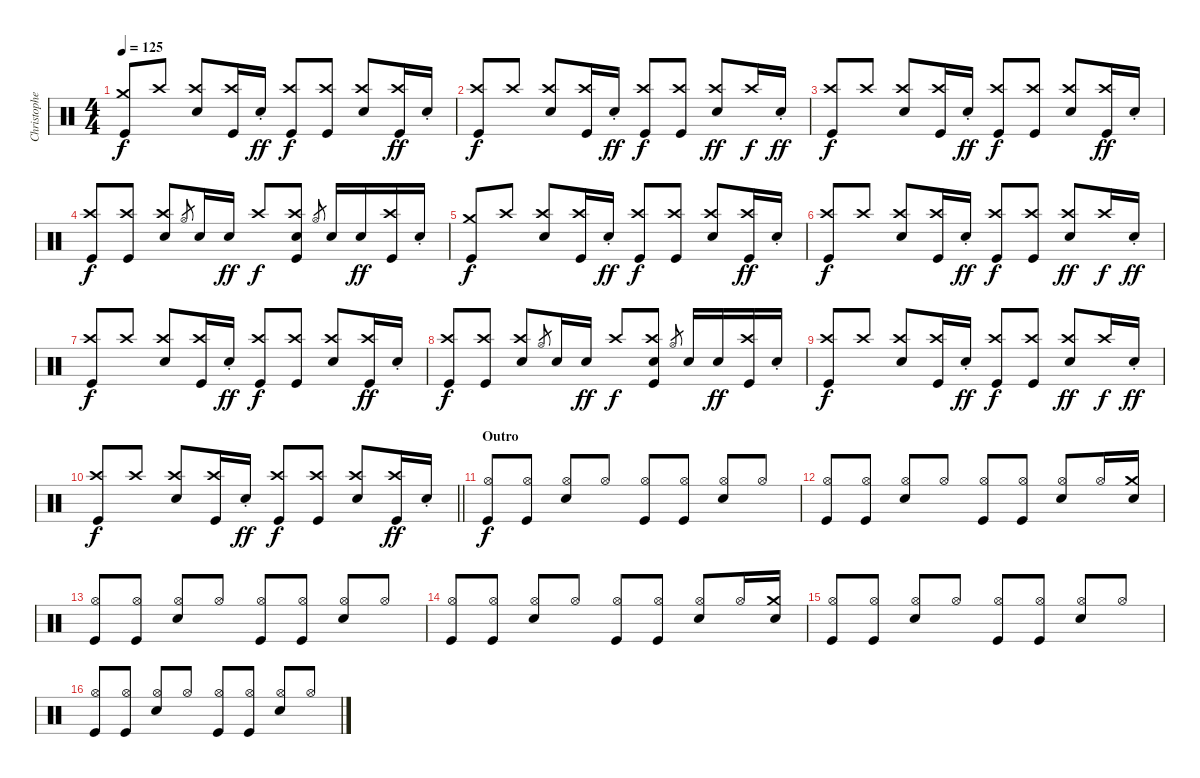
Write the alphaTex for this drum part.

\track ("Christopher - Drums" "Christophe") {instrument percussion}
\staff {score}
\articulation defaults
\ts (4 4)
\tempo 125
\clef neutral
\ks c
("Crash medium (hit)" "Kick (hit)").8{dy f beam Up} "Crash high (hit)".8{beam Up} ("Crash high (hit)" "Electric Snare (hit)").8{beam Up} ("Crash high (hit)" "Kick (hit)").16{beam Up} "Electric Snare (hit)"{st}.16{dy ff beam Up} ("Crash high (hit)" "Kick (hit)").8{dy f beam Up} ("Crash high (hit)" "Kick (hit)").8{beam Up} ("Crash high (hit)" "Electric Snare (hit)").8{beam Up} ("Crash high (hit)" "Kick (hit)").16{dy ff beam Up} "Electric Snare (hit)"{st}.16{beam Up} |
("Crash high (hit)" "Kick (hit)").8{dy f beam Up} "Crash high (hit)".8{beam Up} ("Crash high (hit)" "Electric Snare (hit)").8{beam Up} ("Crash high (hit)" "Kick (hit)").16{beam Up} "Electric Snare (hit)"{st}.16{dy ff beam Up} ("Crash high (hit)" "Kick (hit)").8{dy f beam Up} ("Crash high (hit)" "Kick (hit)").8{beam Up} ("Crash high (hit)" "Electric Snare (hit)").8{dy ff beam Up} "Crash high (hit)".16{dy f beam Up} "Electric Snare (hit)"{st}.16{dy ff beam Up} |
("Crash high (hit)" "Kick (hit)").8{dy f beam Up} "Crash high (hit)".8{beam Up} ("Crash high (hit)" "Electric Snare (hit)").8{beam Up} ("Crash high (hit)" "Kick (hit)").16{beam Up} "Electric Snare (hit)"{st}.16{dy ff beam Up} ("Crash high (hit)" "Kick (hit)").8{dy f beam Up} ("Crash high (hit)" "Kick (hit)").8{beam Up} ("Crash high (hit)" "Electric Snare (hit)").8{beam Up} ("Crash high (hit)" "Kick (hit)").16{dy ff beam Up} "Electric Snare (hit)"{st}.16{beam Up} |
("Crash high (hit)" "Kick (hit)").8{dy f beam Up} ("Crash high (hit)" "Kick (hit)").8{beam Up} ("Crash high (hit)" "Electric Snare (hit)").8{beam Up} "Hi-Hat (open)".8{gr} "Electric Snare (hit)".16{beam Up} "Electric Snare (hit)".16{dy ff beam Up} "Crash high (hit)".8{dy f beam Up} ("Crash high (hit)" "Electric Snare (hit)" "Kick (hit)").8{beam Up} "Hi-Hat (open)".8{gr} "Electric Snare (hit)".16{beam Up} "Electric Snare (hit)".16{dy ff beam Up} ("Crash high (hit)" "Kick (hit)").16{beam Up} "Electric Snare (hit)"{st}.16{beam Up} |
("Crash medium (hit)" "Kick (hit)").8{dy f beam Up} "Crash high (hit)".8{beam Up} ("Crash high (hit)" "Electric Snare (hit)").8{beam Up} ("Crash high (hit)" "Kick (hit)").16{beam Up} "Electric Snare (hit)"{st}.16{dy ff beam Up} ("Crash high (hit)" "Kick (hit)").8{dy f beam Up} ("Crash high (hit)" "Kick (hit)").8{beam Up} ("Crash high (hit)" "Electric Snare (hit)").8{beam Up} ("Crash high (hit)" "Kick (hit)").16{dy ff beam Up} "Electric Snare (hit)"{st}.16{beam Up} |
("Crash high (hit)" "Kick (hit)").8{dy f beam Up} "Crash high (hit)".8{beam Up} ("Crash high (hit)" "Electric Snare (hit)").8{beam Up} ("Crash high (hit)" "Kick (hit)").16{beam Up} "Electric Snare (hit)"{st}.16{dy ff beam Up} ("Crash high (hit)" "Kick (hit)").8{dy f beam Up} ("Crash high (hit)" "Kick (hit)").8{beam Up} ("Crash high (hit)" "Electric Snare (hit)").8{dy ff beam Up} "Crash high (hit)".16{dy f beam Up} "Electric Snare (hit)"{st}.16{dy ff beam Up} |
("Crash high (hit)" "Kick (hit)").8{dy f beam Up} "Crash high (hit)".8{beam Up} ("Crash high (hit)" "Electric Snare (hit)").8{beam Up} ("Crash high (hit)" "Kick (hit)").16{beam Up} "Electric Snare (hit)"{st}.16{dy ff beam Up} ("Crash high (hit)" "Kick (hit)").8{dy f beam Up} ("Crash high (hit)" "Kick (hit)").8{beam Up} ("Crash high (hit)" "Electric Snare (hit)").8{beam Up} ("Crash high (hit)" "Kick (hit)").16{dy ff beam Up} "Electric Snare (hit)"{st}.16{beam Up} |
("Crash high (hit)" "Kick (hit)").8{dy f beam Up} ("Crash high (hit)" "Kick (hit)").8{beam Up} ("Crash high (hit)" "Electric Snare (hit)").8{beam Up} "Hi-Hat (open)".8{gr} "Electric Snare (hit)".16{beam Up} "Electric Snare (hit)".16{dy ff beam Up} "Crash high (hit)".8{dy f beam Up} ("Crash high (hit)" "Electric Snare (hit)" "Kick (hit)").8{beam Up} "Hi-Hat (open)".8{gr} "Electric Snare (hit)".16{beam Up} "Electric Snare (hit)".16{dy ff beam Up} ("Crash high (hit)" "Kick (hit)").16{beam Up} "Electric Snare (hit)"{st}.16{beam Up} |
("Crash high (hit)" "Kick (hit)").8{dy f beam Up} "Crash high (hit)".8{beam Up} ("Crash high (hit)" "Electric Snare (hit)").8{beam Up} ("Crash high (hit)" "Kick (hit)").16{beam Up} "Electric Snare (hit)"{st}.16{dy ff beam Up} ("Crash high (hit)" "Kick (hit)").8{dy f beam Up} ("Crash high (hit)" "Kick (hit)").8{beam Up} ("Crash high (hit)" "Electric Snare (hit)").8{dy ff beam Up} "Crash high (hit)".16{dy f beam Up} "Electric Snare (hit)"{st}.16{dy ff beam Up} |
\barLineRight lightlight
("Crash high (hit)" "Kick (hit)").8{dy f beam Up} "Crash high (hit)".8{beam Up} ("Crash high (hit)" "Electric Snare (hit)").8{beam Up} ("Crash high (hit)" "Kick (hit)").16{beam Up} "Electric Snare (hit)"{st}.16{dy ff beam Up} ("Crash high (hit)" "Kick (hit)").8{dy f beam Up} ("Crash high (hit)" "Kick (hit)").8{beam Up} ("Crash high (hit)" "Electric Snare (hit)").8{beam Up} ("Crash high (hit)" "Kick (hit)").16{dy ff beam Up} "Electric Snare (hit)"{st}.16{beam Up} |
\section ("" "Outro")
("Hi-Hat (open)" "Kick (hit)").8{dy f beam Up} ("Hi-Hat (open)" "Kick (hit)").8{beam Up} ("Hi-Hat (open)" "Electric Snare (hit)").8{beam Up} "Hi-Hat (open)".8{beam Up} ("Hi-Hat (open)" "Kick (hit)").8{beam Up} ("Hi-Hat (open)" "Kick (hit)").8{beam Up} ("Hi-Hat (open)" "Electric Snare (hit)").8{beam Up} "Hi-Hat (open)".8{beam Up} |
("Hi-Hat (open)" "Kick (hit)").8{beam Up} ("Hi-Hat (open)" "Kick (hit)").8{beam Up} ("Hi-Hat (open)" "Electric Snare (hit)").8{beam Up} "Hi-Hat (open)".8{beam Up} ("Hi-Hat (open)" "Kick (hit)").8{beam Up} ("Hi-Hat (open)" "Kick (hit)").8{beam Up} ("Hi-Hat (open)" "Electric Snare (hit)").8{beam Up} "Hi-Hat (open)".16{beam Up} ("Crash medium (hit)" "Electric Snare (hit)").16{beam Up} |
("Hi-Hat (open)" "Kick (hit)").8{beam Up} ("Hi-Hat (open)" "Kick (hit)").8{beam Up} ("Hi-Hat (open)" "Electric Snare (hit)").8{beam Up} "Hi-Hat (open)".8{beam Up} ("Hi-Hat (open)" "Kick (hit)").8{beam Up} ("Hi-Hat (open)" "Kick (hit)").8{beam Up} ("Hi-Hat (open)" "Electric Snare (hit)").8{beam Up} "Hi-Hat (open)".8{beam Up} |
("Hi-Hat (open)" "Kick (hit)").8{beam Up} ("Hi-Hat (open)" "Kick (hit)").8{beam Up} ("Hi-Hat (open)" "Electric Snare (hit)").8{beam Up} "Hi-Hat (open)".8{beam Up} ("Hi-Hat (open)" "Kick (hit)").8{beam Up} ("Hi-Hat (open)" "Kick (hit)").8{beam Up} ("Hi-Hat (open)" "Electric Snare (hit)").8{beam Up} "Hi-Hat (open)".16{beam Up} ("Crash medium (hit)" "Electric Snare (hit)").16{beam Up} |
("Hi-Hat (open)" "Kick (hit)").8{beam Up} ("Hi-Hat (open)" "Kick (hit)").8{beam Up} ("Hi-Hat (open)" "Electric Snare (hit)").8{beam Up} "Hi-Hat (open)".8{beam Up} ("Hi-Hat (open)" "Kick (hit)").8{beam Up} ("Hi-Hat (open)" "Kick (hit)").8{beam Up} ("Hi-Hat (open)" "Electric Snare (hit)").8{beam Up} "Hi-Hat (open)".8{beam Up} |
("Hi-Hat (open)" "Kick (hit)").8{beam Up} ("Hi-Hat (open)" "Kick (hit)").8{beam Up} ("Hi-Hat (open)" "Electric Snare (hit)").8{beam Up} "Hi-Hat (open)".8{beam Up} ("Hi-Hat (open)" "Kick (hit)").8{beam Up} ("Hi-Hat (open)" "Kick (hit)").8{beam Up} ("Hi-Hat (open)" "Electric Snare (hit)").8{beam Up} "Hi-Hat (open)".8{beam Up}
